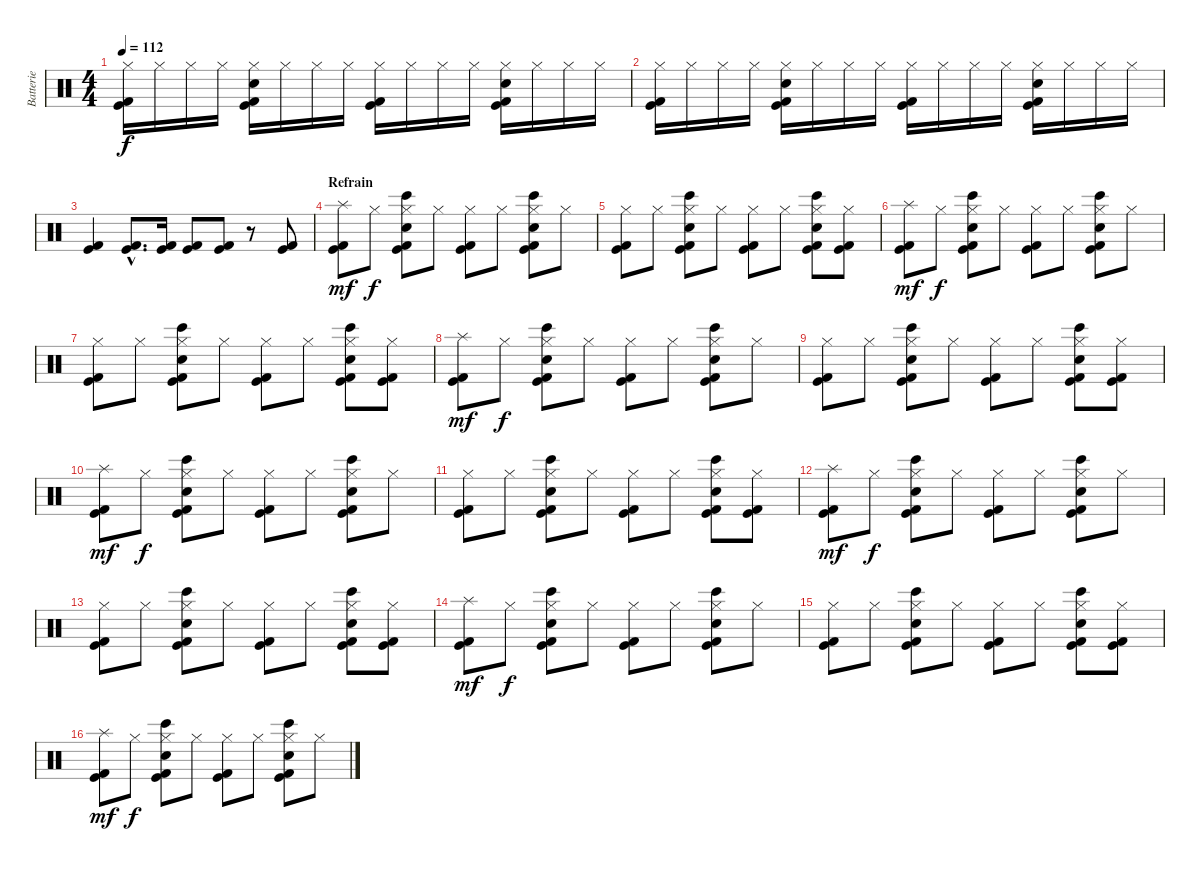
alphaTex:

\track ("Batterie" "Batterie") {instrument percussion}
\staff {score}
\articulation defaults
\ts (4 4)
\tempo 112
\clef neutral
\ks c
("Hi-Hat (closed)" "Kick (hit)" "Kick (hit) 2").16{dy f} "Hi-Hat (closed)".16 "Hi-Hat (closed)".16 "Hi-Hat (closed)".16 ("Hi-Hat (closed)" "Hand Clap (hit)" "Kick (hit)" "Kick (hit) 2").16 "Hi-Hat (closed)".16 "Hi-Hat (closed)".16 "Hi-Hat (closed)".16 ("Hi-Hat (closed)" "Kick (hit)" "Kick (hit) 2").16 "Hi-Hat (closed)".16 "Hi-Hat (closed)".16 "Hi-Hat (closed)".16 ("Hi-Hat (closed)" "Hand Clap (hit)" "Kick (hit)" "Kick (hit) 2").16 "Hi-Hat (closed)".16 "Hi-Hat (closed)".16 "Hi-Hat (closed)".16 |
("Hi-Hat (closed)" "Kick (hit)" "Kick (hit) 2").16 "Hi-Hat (closed)".16 "Hi-Hat (closed)".16 "Hi-Hat (closed)".16 ("Hi-Hat (closed)" "Hand Clap (hit)" "Kick (hit)" "Kick (hit) 2").16 "Hi-Hat (closed)".16 "Hi-Hat (closed)".16 "Hi-Hat (closed)".16 ("Hi-Hat (closed)" "Kick (hit)" "Kick (hit) 2").16 "Hi-Hat (closed)".16 "Hi-Hat (closed)".16 "Hi-Hat (closed)".16 ("Hi-Hat (closed)" "Hand Clap (hit)" "Kick (hit)" "Kick (hit) 2").16 "Hi-Hat (closed)".16 "Hi-Hat (closed)".16 "Hi-Hat (closed)".16 |
("Kick (hit)" "Kick (hit) 2").4 ("Kick (hit)"{hac} "Kick (hit) 2"{hac}).8{d} ("Kick (hit)" "Kick (hit) 2").16 ("Kick (hit)" "Kick (hit) 2").8 ("Kick (hit)" "Kick (hit) 2").8 r.8 ("Kick (hit)" "Kick (hit) 2").8 |
\section ("" "Refrain")
("Splash (hit)" "Kick (hit)" "Kick (hit) 2").8{dy mf} "Hi-Hat (closed)".8{dy f} ("Hi-Hat (closed)" "Electric Snare (hit)" "Bongo High (hit)" "Kick (hit)" "Kick (hit) 2").8 "Hi-Hat (closed)".8 ("Hi-Hat (closed)" "Kick (hit)" "Kick (hit) 2").8 "Hi-Hat (closed)".8 ("Hi-Hat (closed)" "Electric Snare (hit)" "Bongo High (hit)" "Kick (hit)" "Kick (hit) 2").8 "Hi-Hat (closed)".8 |
("Hi-Hat (closed)" "Kick (hit)" "Kick (hit) 2").8 "Hi-Hat (closed)".8 ("Hi-Hat (closed)" "Electric Snare (hit)" "Bongo High (hit)" "Kick (hit)" "Kick (hit) 2").8 "Hi-Hat (closed)".8 ("Hi-Hat (closed)" "Kick (hit)" "Kick (hit) 2").8 "Hi-Hat (closed)".8 ("Hi-Hat (closed)" "Electric Snare (hit)" "Bongo High (hit)" "Kick (hit)" "Kick (hit) 2").8 ("Hi-Hat (closed)" "Kick (hit)" "Kick (hit) 2").8 |
("Splash (hit)" "Kick (hit)" "Kick (hit) 2").8{dy mf} "Hi-Hat (closed)".8{dy f} ("Hi-Hat (closed)" "Electric Snare (hit)" "Bongo High (hit)" "Kick (hit)" "Kick (hit) 2").8 "Hi-Hat (closed)".8 ("Hi-Hat (closed)" "Kick (hit)" "Kick (hit) 2").8 "Hi-Hat (closed)".8 ("Hi-Hat (closed)" "Electric Snare (hit)" "Bongo High (hit)" "Kick (hit)" "Kick (hit) 2").8 "Hi-Hat (closed)".8 |
("Hi-Hat (closed)" "Kick (hit)" "Kick (hit) 2").8 "Hi-Hat (closed)".8 ("Hi-Hat (closed)" "Electric Snare (hit)" "Bongo High (hit)" "Kick (hit)" "Kick (hit) 2").8 "Hi-Hat (closed)".8 ("Hi-Hat (closed)" "Kick (hit)" "Kick (hit) 2").8 "Hi-Hat (closed)".8 ("Hi-Hat (closed)" "Electric Snare (hit)" "Bongo High (hit)" "Kick (hit)" "Kick (hit) 2").8 ("Hi-Hat (closed)" "Kick (hit)" "Kick (hit) 2").8 |
("Splash (hit)" "Kick (hit)" "Kick (hit) 2").8{dy mf} "Hi-Hat (closed)".8{dy f} ("Hi-Hat (closed)" "Electric Snare (hit)" "Bongo High (hit)" "Kick (hit)" "Kick (hit) 2").8 "Hi-Hat (closed)".8 ("Hi-Hat (closed)" "Kick (hit)" "Kick (hit) 2").8 "Hi-Hat (closed)".8 ("Hi-Hat (closed)" "Electric Snare (hit)" "Bongo High (hit)" "Kick (hit)" "Kick (hit) 2").8 "Hi-Hat (closed)".8 |
("Hi-Hat (closed)" "Kick (hit)" "Kick (hit) 2").8 "Hi-Hat (closed)".8 ("Hi-Hat (closed)" "Electric Snare (hit)" "Bongo High (hit)" "Kick (hit)" "Kick (hit) 2").8 "Hi-Hat (closed)".8 ("Hi-Hat (closed)" "Kick (hit)" "Kick (hit) 2").8 "Hi-Hat (closed)".8 ("Hi-Hat (closed)" "Electric Snare (hit)" "Bongo High (hit)" "Kick (hit)" "Kick (hit) 2").8 ("Hi-Hat (closed)" "Kick (hit)" "Kick (hit) 2").8 |
("Splash (hit)" "Kick (hit)" "Kick (hit) 2").8{dy mf} "Hi-Hat (closed)".8{dy f} ("Hi-Hat (closed)" "Electric Snare (hit)" "Bongo High (hit)" "Kick (hit)" "Kick (hit) 2").8 "Hi-Hat (closed)".8 ("Hi-Hat (closed)" "Kick (hit)" "Kick (hit) 2").8 "Hi-Hat (closed)".8 ("Hi-Hat (closed)" "Electric Snare (hit)" "Bongo High (hit)" "Kick (hit)" "Kick (hit) 2").8 "Hi-Hat (closed)".8 |
("Hi-Hat (closed)" "Kick (hit)" "Kick (hit) 2").8 "Hi-Hat (closed)".8 ("Hi-Hat (closed)" "Electric Snare (hit)" "Bongo High (hit)" "Kick (hit)" "Kick (hit) 2").8 "Hi-Hat (closed)".8 ("Hi-Hat (closed)" "Kick (hit)" "Kick (hit) 2").8 "Hi-Hat (closed)".8 ("Hi-Hat (closed)" "Electric Snare (hit)" "Bongo High (hit)" "Kick (hit)" "Kick (hit) 2").8 ("Hi-Hat (closed)" "Kick (hit)" "Kick (hit) 2").8 |
("Splash (hit)" "Kick (hit)" "Kick (hit) 2").8{dy mf} "Hi-Hat (closed)".8{dy f} ("Hi-Hat (closed)" "Electric Snare (hit)" "Bongo High (hit)" "Kick (hit)" "Kick (hit) 2").8 "Hi-Hat (closed)".8 ("Hi-Hat (closed)" "Kick (hit)" "Kick (hit) 2").8 "Hi-Hat (closed)".8 ("Hi-Hat (closed)" "Electric Snare (hit)" "Bongo High (hit)" "Kick (hit)" "Kick (hit) 2").8 "Hi-Hat (closed)".8 |
("Hi-Hat (closed)" "Kick (hit)" "Kick (hit) 2").8 "Hi-Hat (closed)".8 ("Hi-Hat (closed)" "Electric Snare (hit)" "Bongo High (hit)" "Kick (hit)" "Kick (hit) 2").8 "Hi-Hat (closed)".8 ("Hi-Hat (closed)" "Kick (hit)" "Kick (hit) 2").8 "Hi-Hat (closed)".8 ("Hi-Hat (closed)" "Electric Snare (hit)" "Bongo High (hit)" "Kick (hit)" "Kick (hit) 2").8 ("Hi-Hat (closed)" "Kick (hit)" "Kick (hit) 2").8 |
("Splash (hit)" "Kick (hit)" "Kick (hit) 2").8{dy mf} "Hi-Hat (closed)".8{dy f} ("Hi-Hat (closed)" "Electric Snare (hit)" "Bongo High (hit)" "Kick (hit)" "Kick (hit) 2").8 "Hi-Hat (closed)".8 ("Hi-Hat (closed)" "Kick (hit)" "Kick (hit) 2").8 "Hi-Hat (closed)".8 ("Hi-Hat (closed)" "Electric Snare (hit)" "Bongo High (hit)" "Kick (hit)" "Kick (hit) 2").8 "Hi-Hat (closed)".8 |
("Hi-Hat (closed)" "Kick (hit)" "Kick (hit) 2").8 "Hi-Hat (closed)".8 ("Hi-Hat (closed)" "Electric Snare (hit)" "Bongo High (hit)" "Kick (hit)" "Kick (hit) 2").8 "Hi-Hat (closed)".8 ("Hi-Hat (closed)" "Kick (hit)" "Kick (hit) 2").8 "Hi-Hat (closed)".8 ("Hi-Hat (closed)" "Electric Snare (hit)" "Bongo High (hit)" "Kick (hit)" "Kick (hit) 2").8 ("Hi-Hat (closed)" "Kick (hit)" "Kick (hit) 2").8 |
("Splash (hit)" "Kick (hit)" "Kick (hit) 2").8{dy mf} "Hi-Hat (closed)".8{dy f} ("Hi-Hat (closed)" "Electric Snare (hit)" "Bongo High (hit)" "Kick (hit)" "Kick (hit) 2").8 "Hi-Hat (closed)".8 ("Hi-Hat (closed)" "Kick (hit)" "Kick (hit) 2").8 "Hi-Hat (closed)".8 ("Hi-Hat (closed)" "Electric Snare (hit)" "Bongo High (hit)" "Kick (hit)" "Kick (hit) 2").8 "Hi-Hat (closed)".8
